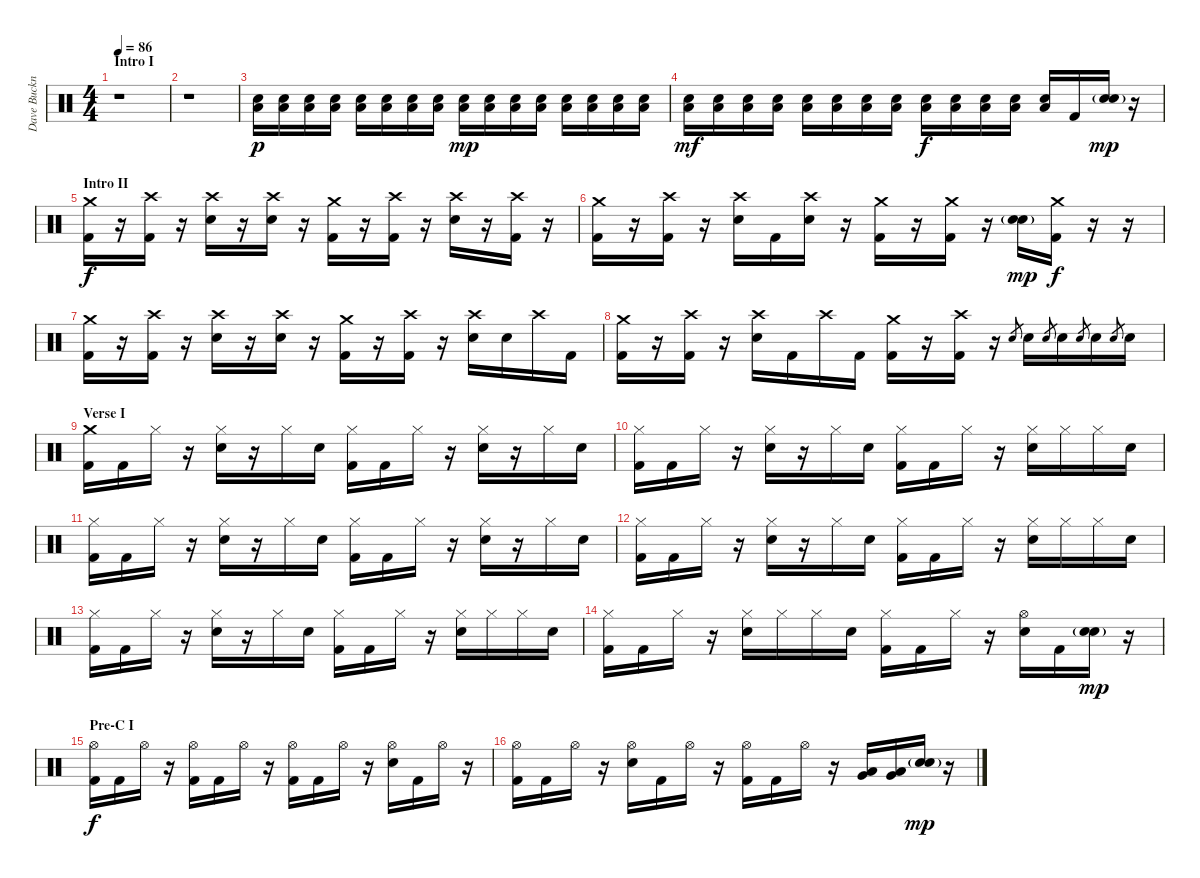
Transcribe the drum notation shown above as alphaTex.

\track ("Dave Buckner - Drums" "Dave Buckn") {instrument percussion}
\staff {score}
\articulation defaults
\ts (4 4)
\section ("" "Intro I")
\tempo 86
\clef neutral
\ks c
r.1{dy p} |
r.1 |
("Snare (hit) 2" "Low Floor Tom (hit)").16 ("Snare (hit) 2" "Low Floor Tom (hit)").16 ("Snare (hit) 2" "Low Floor Tom (hit)").16 ("Snare (hit) 2" "Low Floor Tom (hit)").16 ("Snare (hit) 2" "Low Floor Tom (hit)").16 ("Snare (hit) 2" "Low Floor Tom (hit)").16 ("Snare (hit) 2" "Low Floor Tom (hit)").16 ("Snare (hit) 2" "Low Floor Tom (hit)").16 ("Snare (hit) 2" "Low Floor Tom (hit)").16{dy mp} ("Snare (hit) 2" "Low Floor Tom (hit)").16 ("Snare (hit) 2" "Low Floor Tom (hit)").16 ("Snare (hit) 2" "Low Floor Tom (hit)").16 ("Snare (hit) 2" "Low Floor Tom (hit)").16 ("Snare (hit) 2" "Low Floor Tom (hit)").16 ("Snare (hit) 2" "Low Floor Tom (hit)").16 ("Snare (hit) 2" "Low Floor Tom (hit)").16 |
("Snare (hit) 2" "Low Floor Tom (hit)").16{dy mf} ("Snare (hit) 2" "Low Floor Tom (hit)").16 ("Snare (hit) 2" "Low Floor Tom (hit)").16 ("Snare (hit) 2" "Low Floor Tom (hit)").16 ("Snare (hit) 2" "Low Floor Tom (hit)").16 ("Snare (hit) 2" "Low Floor Tom (hit)").16 ("Snare (hit) 2" "Low Floor Tom (hit)").16 ("Snare (hit) 2" "Low Floor Tom (hit)").16 ("Snare (hit) 2" "Low Floor Tom (hit)").16{dy f} ("Snare (hit) 2" "Low Floor Tom (hit)").16 ("Snare (hit) 2" "Low Floor Tom (hit)").16 ("Snare (hit) 2" "Low Floor Tom (hit)").16 ("Snare (hit) 2" "Low Floor Tom (hit)").16 "Kick (hit) 2".16 ("Snare (hit) 2"{g} "Snare (hit) 2").16{dy mp} r.16 |
\section ("" "Intro II")
("Crash medium (hit)" "Kick (hit) 2").16{dy f} r.16 ("Crash high (hit)" "Kick (hit) 2").16 r.16 ("Crash high (hit)" "Snare (hit) 2").16 r.16 ("Crash high (hit)" "Snare (hit) 2").16 r.16 ("Crash medium (hit)" "Kick (hit) 2").16 r.16 ("Crash high (hit)" "Kick (hit) 2").16 r.16 ("Crash high (hit)" "Snare (hit) 2").16 r.16 ("Crash high (hit)" "Kick (hit) 2").16 r.16 |
("Crash medium (hit)" "Kick (hit) 2").16 r.16 ("Crash high (hit)" "Kick (hit) 2").16 r.16 ("Crash high (hit)" "Snare (hit) 2").16 "Kick (hit) 2".16 ("Crash high (hit)" "Snare (hit) 2").16 r.16 ("Crash medium (hit)" "Kick (hit) 2").16 r.16 ("Crash medium (hit)" "Kick (hit) 2").16 r.16 ("Snare (hit) 2"{g} "Snare (hit) 2").16{dy mp} ("Crash medium (hit)" "Kick (hit) 2").16{dy f} r.16 r.16 |
("Crash medium (hit)" "Kick (hit) 2").16 r.16 ("Crash high (hit)" "Kick (hit) 2").16 r.16 ("Crash high (hit)" "Snare (hit) 2").16 r.16 ("Crash high (hit)" "Snare (hit) 2").16 r.16 ("Crash medium (hit)" "Kick (hit) 2").16 r.16 ("Crash high (hit)" "Kick (hit) 2").16 r.16 ("Crash high (hit)" "Snare (hit) 2").16 "Snare (hit) 2".16 "Crash high (hit)".16 "Kick (hit) 2".16 |
("Crash medium (hit)" "Kick (hit) 2").16 r.16 ("Crash high (hit)" "Kick (hit) 2").16 r.16 ("Crash high (hit)" "Snare (hit) 2").16 "Kick (hit) 2".16 "Crash high (hit)".16 "Kick (hit) 2".16 ("Crash medium (hit)" "Kick (hit) 2").16 r.16 ("Crash high (hit)" "Kick (hit) 2").16 r.16 "Snare (hit) 2".8{gr} "Snare (hit) 2".16 "Snare (hit) 2".8{gr} "Snare (hit) 2".16 "Snare (hit) 2".8{gr} "Snare (hit) 2".16 "Snare (hit) 2".8{gr} "Snare (hit) 2".16 |
\section ("" "Verse I")
("Crash medium (hit)" "Kick (hit) 2").16 "Kick (hit) 2".16 "Hi-Hat (closed)".16 r.16 ("Hi-Hat (closed)" "Snare (hit) 2").16 r.16 "Hi-Hat (closed)".16 "Snare (hit) 2".16 ("Hi-Hat (closed)" "Kick (hit) 2").16 "Kick (hit) 2".16 "Hi-Hat (closed)".16 r.16 ("Hi-Hat (closed)" "Snare (hit) 2").16 r.16 "Hi-Hat (closed)".16 "Snare (hit) 2".16 |
("Hi-Hat (closed)" "Kick (hit) 2").16 "Kick (hit) 2".16 "Hi-Hat (closed)".16 r.16 ("Hi-Hat (closed)" "Snare (hit) 2").16 r.16 "Hi-Hat (closed)".16 "Snare (hit) 2".16 ("Hi-Hat (closed)" "Kick (hit) 2").16 "Kick (hit) 2".16 "Hi-Hat (closed)".16 r.16 ("Hi-Hat (closed)" "Snare (hit) 2").16 "Hi-Hat (closed)".16 "Hi-Hat (closed)".16 "Snare (hit) 2".16 |
("Hi-Hat (closed)" "Kick (hit) 2").16 "Kick (hit) 2".16 "Hi-Hat (closed)".16 r.16 ("Hi-Hat (closed)" "Snare (hit) 2").16 r.16 "Hi-Hat (closed)".16 "Snare (hit) 2".16 ("Hi-Hat (closed)" "Kick (hit) 2").16 "Kick (hit) 2".16 "Hi-Hat (closed)".16 r.16 ("Hi-Hat (closed)" "Snare (hit) 2").16 r.16 "Hi-Hat (closed)".16 "Snare (hit) 2".16 |
("Hi-Hat (closed)" "Kick (hit) 2").16 "Kick (hit) 2".16 "Hi-Hat (closed)".16 r.16 ("Hi-Hat (closed)" "Snare (hit) 2").16 r.16 "Hi-Hat (closed)".16 "Snare (hit) 2".16 ("Hi-Hat (closed)" "Kick (hit) 2").16 "Kick (hit) 2".16 "Hi-Hat (closed)".16 r.16 ("Hi-Hat (closed)" "Snare (hit) 2").16 "Hi-Hat (closed)".16 "Hi-Hat (closed)".16 "Snare (hit) 2".16 |
("Hi-Hat (closed)" "Kick (hit) 2").16 "Kick (hit) 2".16 "Hi-Hat (closed)".16 r.16 ("Hi-Hat (closed)" "Snare (hit) 2").16 r.16 "Hi-Hat (closed)".16 "Snare (hit) 2".16 ("Hi-Hat (closed)" "Kick (hit) 2").16 "Kick (hit) 2".16 "Hi-Hat (closed)".16 r.16 ("Hi-Hat (closed)" "Snare (hit) 2").16 "Hi-Hat (closed)".16 "Hi-Hat (closed)".16 "Snare (hit) 2".16 |
("Hi-Hat (closed)" "Kick (hit) 2").16 "Kick (hit) 2".16 "Hi-Hat (closed)".16 r.16 ("Hi-Hat (closed)" "Snare (hit) 2").16 "Hi-Hat (closed)".16 "Hi-Hat (closed)".16 "Snare (hit) 2".16 ("Hi-Hat (closed)" "Kick (hit) 2").16 "Kick (hit) 2".16 "Hi-Hat (closed)".16 r.16 ("Hi-Hat (open)" "Snare (hit) 2").16 "Kick (hit) 2".16 ("Snare (hit) 2"{g} "Snare (hit) 2").16{dy mp} r.16 |
\section ("" "Pre-C I")
("Hi-Hat (open)" "Kick (hit) 2").16{dy f} "Kick (hit) 2".16 "Hi-Hat (open)".16 r.16 ("Hi-Hat (open)" "Kick (hit) 2").16 "Kick (hit) 2".16 "Hi-Hat (open)".16 r.16 ("Hi-Hat (open)" "Kick (hit) 2").16 "Kick (hit) 2".16 "Hi-Hat (open)".16 r.16 ("Hi-Hat (open)" "Snare (hit) 2").16 "Kick (hit) 2".16 "Hi-Hat (open)".16 r.16 |
("Hi-Hat (open)" "Kick (hit) 2").16 "Kick (hit) 2".16 "Hi-Hat (open)".16 r.16 ("Hi-Hat (open)" "Snare (hit) 2").16 "Kick (hit) 2".16 "Hi-Hat (open)".16 r.16 ("Hi-Hat (open)" "Kick (hit) 2").16 "Kick (hit) 2".16 "Hi-Hat (open)".16 r.16 ("Very Low Tom (hit)" "Low Floor Tom (hit)").16 ("Very Low Tom (hit)" "Low Floor Tom (hit)").16 ("Snare (hit) 2"{g} "Snare (hit) 2").16{dy mp} r.16
